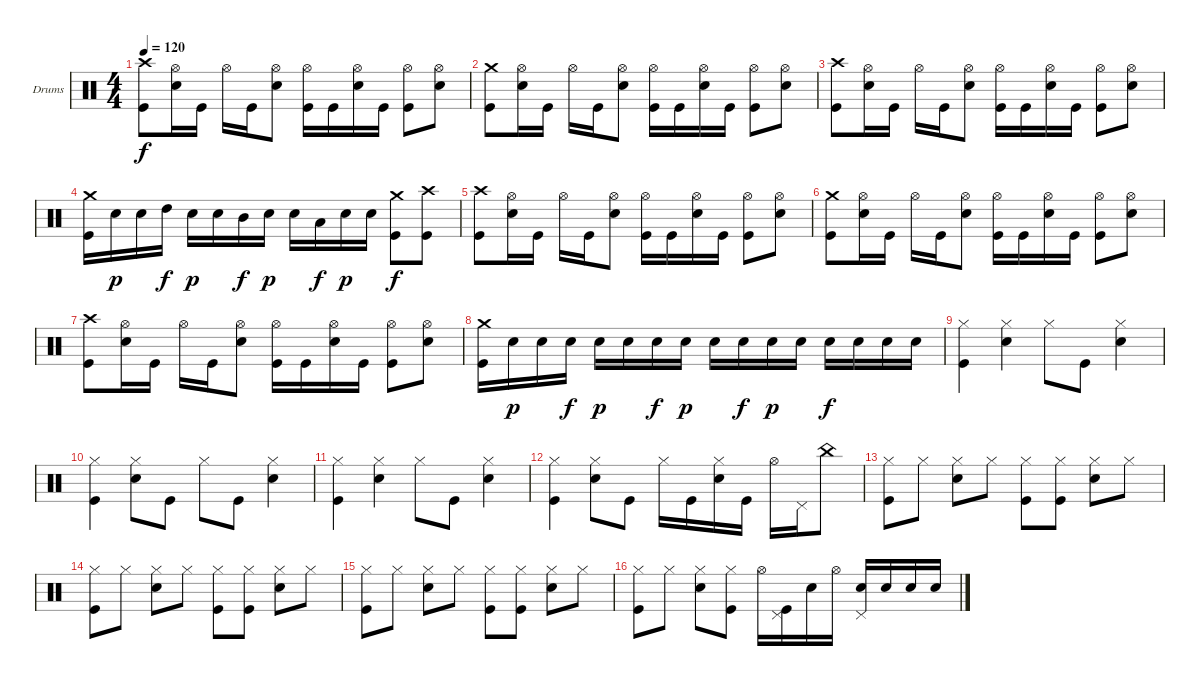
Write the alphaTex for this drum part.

\bracketExtendMode groupsimilarinstruments
\firstSystemTrackNameOrientation horizontal
\otherSystemsTrackNameOrientation horizontal
\track ("Drumkit" "Drums") {instrument percussion}
\staff {score}
\articulation defaults
\ts (4 4)
\tempo 120
\clef neutral
\ks c
("Crash high (hit)" "Kick (hit)").8{dy f} ("Hi-Hat (open)" "Snare (hit) 2").16 "Kick (hit)".16 "Hi-Hat (open)".16 "Kick (hit)".16 ("Hi-Hat (open)" "Snare (hit) 2").8 ("Hi-Hat (open)" "Kick (hit)").16 "Kick (hit)".16 ("Hi-Hat (open)" "Snare (hit) 2").16 "Kick (hit)".16 ("Hi-Hat (open)" "Kick (hit)").8 ("Hi-Hat (open)" "Snare (hit) 2").8 |
("Crash medium (hit)" "Kick (hit)").8 ("Hi-Hat (open)" "Snare (hit) 2").16 "Kick (hit)".16 "Hi-Hat (open)".16 "Kick (hit)".16 ("Hi-Hat (open)" "Snare (hit) 2").8 ("Hi-Hat (open)" "Kick (hit)").16 "Kick (hit)".16 ("Hi-Hat (open)" "Snare (hit) 2").16 "Kick (hit)".16 ("Hi-Hat (open)" "Kick (hit)").8 ("Hi-Hat (open)" "Snare (hit) 2").8 |
("Crash high (hit)" "Kick (hit)").8 ("Hi-Hat (open)" "Snare (hit) 2").16 "Kick (hit)".16 "Hi-Hat (open)".16 "Kick (hit)".16 ("Hi-Hat (open)" "Snare (hit) 2").8 ("Hi-Hat (open)" "Kick (hit)").16 "Kick (hit)".16 ("Hi-Hat (open)" "Snare (hit) 2").16 "Kick (hit)".16 ("Hi-Hat (open)" "Kick (hit)").8 ("Hi-Hat (open)" "Snare (hit) 2").8 |
("Crash medium (hit)" "Kick (hit)").16 "Snare (hit) 2".16{dy p} "Snare (hit) 2".16 "High Tom (hit)".16{dy f} "Snare (hit) 2".16{dy p} "Snare (hit) 2".16 "Mid Tom (hit)".16{dy f} "Snare (hit) 2".16{dy p} "Snare (hit) 2".16 "Low Tom (hit)".16{dy f} "Snare (hit) 2".16{dy p} "Snare (hit) 2".16 ("Crash medium (hit)" "Kick (hit)").8{dy f} ("Crash high (hit)" "Kick (hit)").8 |
("Crash high (hit)" "Kick (hit)").8 ("Hi-Hat (open)" "Snare (hit) 2").16 "Kick (hit)".16 "Hi-Hat (open)".16 "Kick (hit)".16 ("Hi-Hat (open)" "Snare (hit) 2").8 ("Hi-Hat (open)" "Kick (hit)").16 "Kick (hit)".16 ("Hi-Hat (open)" "Snare (hit) 2").16 "Kick (hit)".16 ("Hi-Hat (open)" "Kick (hit)").8 ("Hi-Hat (open)" "Snare (hit) 2").8 |
("Crash medium (hit)" "Kick (hit)").8 ("Hi-Hat (open)" "Snare (hit) 2").16 "Kick (hit)".16 "Hi-Hat (open)".16 "Kick (hit)".16 ("Hi-Hat (open)" "Snare (hit) 2").8 ("Hi-Hat (open)" "Kick (hit)").16 "Kick (hit)".16 ("Hi-Hat (open)" "Snare (hit) 2").16 "Kick (hit)".16 ("Hi-Hat (open)" "Kick (hit)").8 ("Hi-Hat (open)" "Snare (hit) 2").8 |
("Crash high (hit)" "Kick (hit)").8 ("Hi-Hat (open)" "Snare (hit) 2").16 "Kick (hit)".16 "Hi-Hat (open)".16 "Kick (hit)".16 ("Hi-Hat (open)" "Snare (hit) 2").8 ("Hi-Hat (open)" "Kick (hit)").16 "Kick (hit)".16 ("Hi-Hat (open)" "Snare (hit) 2").16 "Kick (hit)".16 ("Hi-Hat (open)" "Kick (hit)").8 ("Hi-Hat (open)" "Snare (hit) 2").8 |
("Crash medium (hit)" "Kick (hit)").16 "Snare (hit) 2".16{dy p} "Snare (hit) 2".16 "Snare (hit) 2".16{dy f} "Snare (hit) 2".16{dy p} "Snare (hit) 2".16 "Snare (hit) 2".16{dy f} "Snare (hit) 2".16{dy p} "Snare (hit) 2".16 "Snare (hit) 2".16{dy f} "Snare (hit) 2".16{dy p} "Snare (hit) 2".16 "Snare (hit) 2".16{dy f} "Snare (hit) 2".16 "Snare (hit) 2".16 "Snare (hit) 2".16 |
("Hi-Hat (closed)" "Kick (hit)").4 ("Hi-Hat (closed)" "Snare (hit) 2").4 "Hi-Hat (closed)".8 "Kick (hit)".8 ("Hi-Hat (closed)" "Snare (hit) 2").4 |
("Hi-Hat (closed)" "Kick (hit)").4 ("Hi-Hat (closed)" "Snare (hit) 2").8 "Kick (hit)".8 "Hi-Hat (closed)".8 "Kick (hit)".8 ("Hi-Hat (closed)" "Snare (hit) 2").4 |
("Hi-Hat (closed)" "Kick (hit)").4 ("Hi-Hat (closed)" "Snare (hit) 2").4 "Hi-Hat (closed)".8 "Kick (hit)".8 ("Hi-Hat (closed)" "Snare (hit) 2").4 |
("Hi-Hat (closed)" "Kick (hit)").4 ("Hi-Hat (closed)" "Snare (hit) 2").8 "Kick (hit)".8 "Hi-Hat (closed)".16 "Kick (hit)".16 ("Hi-Hat (closed)" "Snare (hit) 2").16 "Kick (hit)".16 "Hi-Hat (open)".16 "Pedal Hi-Hat (hit)".16 "China (hit)".8 |
("Hi-Hat (closed)" "Kick (hit)").8 "Hi-Hat (closed)".8 ("Hi-Hat (closed)" "Snare (hit) 2").8 "Hi-Hat (closed)".8 ("Hi-Hat (closed)" "Kick (hit)").8 ("Hi-Hat (closed)" "Kick (hit)").8 ("Hi-Hat (closed)" "Snare (hit) 2").8 "Hi-Hat (closed)".8 |
("Hi-Hat (closed)" "Kick (hit)").8 "Hi-Hat (closed)".8 ("Hi-Hat (closed)" "Snare (hit) 2").8 "Hi-Hat (closed)".8 ("Hi-Hat (closed)" "Kick (hit)").8 ("Hi-Hat (closed)" "Kick (hit)").8 ("Hi-Hat (closed)" "Snare (hit) 2").8 "Hi-Hat (closed)".8 |
("Hi-Hat (closed)" "Kick (hit)").8 "Hi-Hat (closed)".8 ("Hi-Hat (closed)" "Snare (hit) 2").8 "Hi-Hat (closed)".8 ("Hi-Hat (closed)" "Kick (hit)").8 ("Hi-Hat (closed)" "Kick (hit)").8 ("Hi-Hat (closed)" "Snare (hit) 2").8 "Hi-Hat (closed)".8 |
("Hi-Hat (closed)" "Kick (hit)").8 "Hi-Hat (closed)".8 ("Hi-Hat (closed)" "Snare (hit) 2").8 ("Hi-Hat (closed)" "Kick (hit)").8 "Hi-Hat (open)".16 ("Kick (hit)" "Pedal Hi-Hat (hit)").16 "Snare (hit) 2".16 "Hi-Hat (open)".16 ("Snare (hit) 2" "Pedal Hi-Hat (hit)").16 "Snare (hit) 2".16 "Snare (hit) 2".16 "Snare (hit) 2".16
